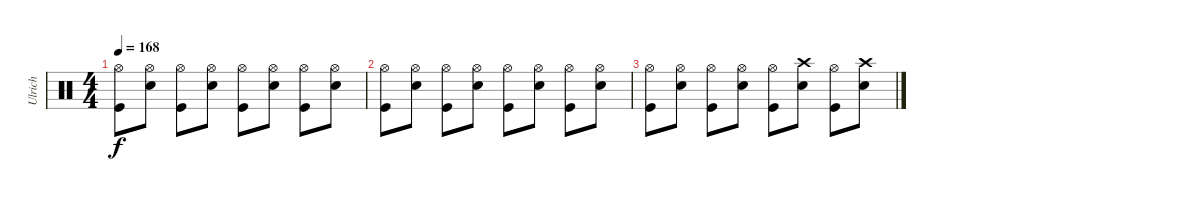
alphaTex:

\track ("Ulrich" "Ulrich") {instrument percussion}
\staff {score}
\articulation defaults
\ts (4 4)
\tempo 168
\clef neutral
\ks c
("Hi-Hat (open)" "Kick (hit)").8{dy f volume 0} ("Hi-Hat (open)" "Snare (hit) 2").8 ("Hi-Hat (open)" "Kick (hit)").8 ("Hi-Hat (open)" "Snare (hit) 2").8 ("Hi-Hat (open)" "Kick (hit)").8 ("Hi-Hat (open)" "Snare (hit) 2").8 ("Hi-Hat (open)" "Kick (hit)").8 ("Hi-Hat (open)" "Snare (hit) 2").8 |
("Hi-Hat (open)" "Kick (hit)").8 ("Hi-Hat (open)" "Snare (hit) 2").8 ("Hi-Hat (open)" "Kick (hit)").8 ("Hi-Hat (open)" "Snare (hit) 2").8 ("Hi-Hat (open)" "Kick (hit)").8 ("Hi-Hat (open)" "Snare (hit) 2").8 ("Hi-Hat (open)" "Kick (hit)").8 ("Hi-Hat (open)" "Snare (hit) 2").8 |
("Hi-Hat (open)" "Kick (hit)").8 ("Hi-Hat (open)" "Snare (hit) 2").8 ("Hi-Hat (open)" "Kick (hit)").8 ("Hi-Hat (open)" "Snare (hit) 2").8 ("Hi-Hat (open)" "Kick (hit)").8 ("Crash high (hit)" "Snare (hit) 2").8 ("Hi-Hat (open)" "Kick (hit)").8 ("Crash high (hit)" "Snare (hit) 2").8
